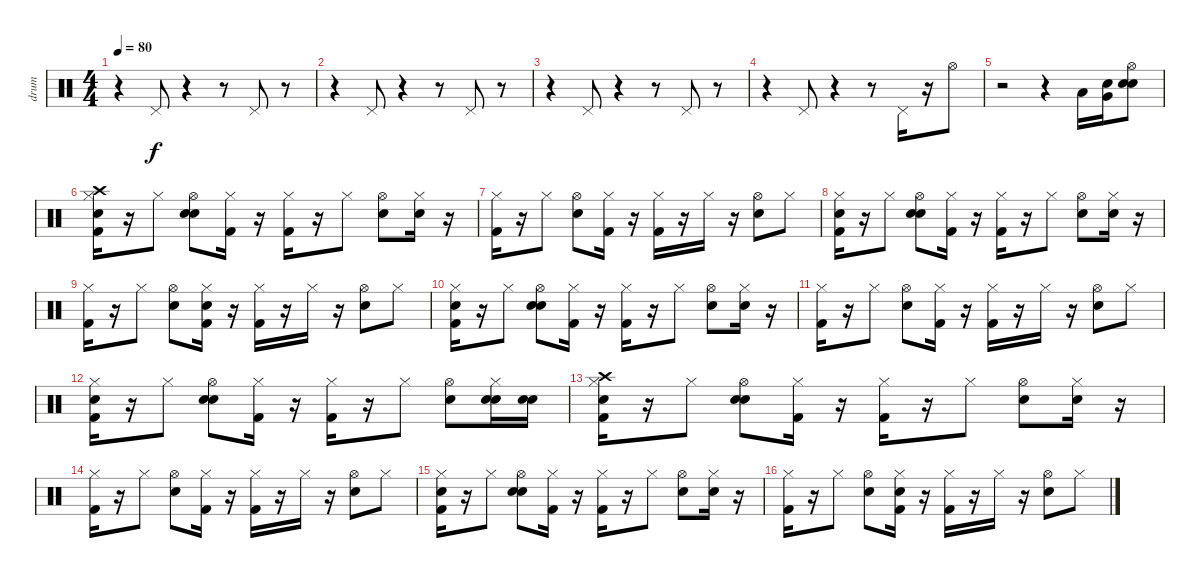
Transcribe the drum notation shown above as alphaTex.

\track ("drum" "drum") {instrument percussion}
\staff {score}
\articulation defaults
\ts (4 4)
\tempo 80
\clef neutral
\ks c
r.4{dy f} "Pedal Hi-Hat (hit)".8 r.4 r.8 "Pedal Hi-Hat (hit)".8 r.8 |
r.4 "Pedal Hi-Hat (hit)".8 r.4 r.8 "Pedal Hi-Hat (hit)".8 r.8 |
r.4 "Pedal Hi-Hat (hit)".8 r.4 r.8 "Pedal Hi-Hat (hit)".8 r.8 |
r.4 "Pedal Hi-Hat (hit)".8 r.4 r.8 "Pedal Hi-Hat (hit)".16 r.16 "Hi-Hat (open)".8 |
r.2 r.4 "Low Tom (hit)".16 ("Snare (hit)" "Very Low Tom (hit)").16 ("Snare (hit)" "Snare (hit) 2" "Hi-Hat (open)").8 |
("Snare (hit)" "Hi-Hat (closed)" "Kick (hit) 2" "Crash high (hit)").16 r.16 "Hi-Hat (closed)".8 ("Snare (hit)" "Hi-Hat (open)" "Snare (hit) 2").8 ("Kick (hit) 2" "Hi-Hat (closed)").16 r.16 ("Hi-Hat (closed)" "Kick (hit) 2").16 r.16 "Hi-Hat (closed)".8 ("Hi-Hat (open)" "Snare (hit) 2").8 ("Snare (hit)" "Hi-Hat (closed)").16 r.16 |
("Hi-Hat (closed)" "Kick (hit) 2").16 r.16 "Hi-Hat (closed)".8 ("Hi-Hat (open)" "Snare (hit) 2").8 ("Kick (hit) 2" "Hi-Hat (closed)").16 r.16 ("Hi-Hat (closed)" "Kick (hit) 2").16 r.16 "Hi-Hat (closed)".16 r.16 ("Snare (hit) 2" "Hi-Hat (open)").8 "Hi-Hat (closed)".8 |
("Snare (hit)" "Hi-Hat (closed)" "Kick (hit) 2").16 r.16 "Hi-Hat (closed)".8 ("Snare (hit)" "Snare (hit) 2" "Hi-Hat (open)").8 ("Hi-Hat (closed)" "Kick (hit) 2").16 r.16 ("Hi-Hat (closed)" "Kick (hit) 2").16 r.16 "Hi-Hat (closed)".8 ("Hi-Hat (open)" "Snare (hit) 2").8 ("Snare (hit)" "Hi-Hat (closed)").16 r.16 |
("Kick (hit) 2" "Hi-Hat (closed)").16 r.16 "Hi-Hat (closed)".8 ("Hi-Hat (open)" "Snare (hit) 2").8 ("Snare (hit)" "Kick (hit) 2" "Hi-Hat (closed)").16 r.16 ("Kick (hit) 2" "Hi-Hat (closed)").16 r.16 "Hi-Hat (closed)".16 r.16 ("Snare (hit) 2" "Hi-Hat (open)").8 "Hi-Hat (closed)".8 |
("Snare (hit)" "Hi-Hat (closed)" "Kick (hit) 2").16 r.16 "Hi-Hat (closed)".8 ("Snare (hit)" "Hi-Hat (open)" "Snare (hit) 2").8 ("Hi-Hat (closed)" "Kick (hit) 2").16 r.16 ("Kick (hit) 2" "Hi-Hat (closed)").16 r.16 "Hi-Hat (closed)".8 ("Hi-Hat (open)" "Snare (hit) 2").8 ("Snare (hit)" "Hi-Hat (closed)").16 r.16 |
("Kick (hit) 2" "Hi-Hat (closed)").16 r.16 "Hi-Hat (closed)".8 ("Snare (hit) 2" "Hi-Hat (open)").8 ("Kick (hit) 2" "Hi-Hat (closed)").16 r.16 ("Hi-Hat (closed)" "Kick (hit) 2").16 r.16 "Hi-Hat (closed)".16 r.16 ("Hi-Hat (open)" "Snare (hit) 2").8 "Hi-Hat (closed)".8 |
("Snare (hit)" "Hi-Hat (closed)" "Kick (hit) 2").16 r.16 "Hi-Hat (closed)".8 ("Snare (hit)" "Snare (hit) 2" "Hi-Hat (open)").8 ("Hi-Hat (closed)" "Kick (hit) 2").16 r.16 ("Hi-Hat (closed)" "Kick (hit) 2").16 r.16 "Hi-Hat (closed)".8 ("Snare (hit) 2" "Hi-Hat (open)").8 ("Snare (hit)" "Hi-Hat (closed)" "Snare (hit) 2").16 ("Snare (hit)" "Snare (hit) 2").16 |
("Snare (hit)" "Hi-Hat (closed)" "Kick (hit) 2" "Crash high (hit)").16 r.16 "Hi-Hat (closed)".8 ("Snare (hit)" "Hi-Hat (open)" "Snare (hit) 2").8 ("Hi-Hat (closed)" "Kick (hit) 2").16 r.16 ("Kick (hit) 2" "Hi-Hat (closed)").16 r.16 "Hi-Hat (closed)".8 ("Hi-Hat (open)" "Snare (hit) 2").8 ("Snare (hit)" "Hi-Hat (closed)").16 r.16 |
("Kick (hit) 2" "Hi-Hat (closed)").16 r.16 "Hi-Hat (closed)".8 ("Hi-Hat (open)" "Snare (hit) 2").8 ("Kick (hit) 2" "Hi-Hat (closed)").16 r.16 ("Kick (hit) 2" "Hi-Hat (closed)").16 r.16 "Hi-Hat (closed)".16 r.16 ("Snare (hit) 2" "Hi-Hat (open)").8 "Hi-Hat (closed)".8 |
("Snare (hit)" "Hi-Hat (closed)" "Kick (hit) 2").16 r.16 "Hi-Hat (closed)".8 ("Snare (hit)" "Hi-Hat (open)" "Snare (hit) 2").8 ("Hi-Hat (closed)" "Kick (hit) 2").16 r.16 ("Kick (hit) 2" "Hi-Hat (closed)").16 r.16 "Hi-Hat (closed)".8 ("Snare (hit) 2" "Hi-Hat (open)").8 ("Snare (hit)" "Hi-Hat (closed)").16 r.16 |
("Kick (hit) 2" "Hi-Hat (closed)").16 r.16 "Hi-Hat (closed)".8 ("Hi-Hat (open)" "Snare (hit) 2").8 ("Snare (hit)" "Kick (hit) 2" "Hi-Hat (closed)").16 r.16 ("Hi-Hat (closed)" "Kick (hit) 2").16 r.16 "Hi-Hat (closed)".16 r.16 ("Snare (hit) 2" "Hi-Hat (open)").8 "Hi-Hat (closed)".8
